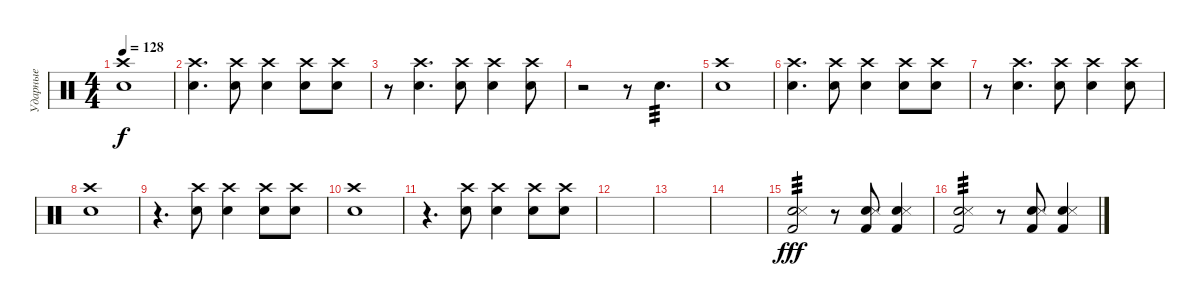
\track ("Ударные" "Ударные") {instrument percussion}
\staff {score}
\articulation defaults
\ts (4 4)
\tempo 128
\clef neutral
\ks c
("Crash high (hit)" "Electric Snare (hit)").1{dy f} |
("Crash high (hit)" "Electric Snare (hit)").4{d} ("Crash high (hit)" "Electric Snare (hit)").8 ("Crash high (hit)" "Electric Snare (hit)").4 ("Crash high (hit)" "Electric Snare (hit)").8 ("Crash high (hit)" "Electric Snare (hit)").8 |
r.8 ("Crash high (hit)" "Electric Snare (hit)").4{d} ("Crash high (hit)" "Electric Snare (hit)").8 ("Crash high (hit)" "Electric Snare (hit)").4 ("Crash high (hit)" "Electric Snare (hit)").8 |
r.2 r.8 "Electric Snare (hit)".4{d tp 3} |
("Crash high (hit)" "Electric Snare (hit)").1 |
("Crash high (hit)" "Electric Snare (hit)").4{d} ("Crash high (hit)" "Electric Snare (hit)").8 ("Crash high (hit)" "Electric Snare (hit)").4 ("Crash high (hit)" "Electric Snare (hit)").8 ("Crash high (hit)" "Electric Snare (hit)").8 |
r.8 ("Crash high (hit)" "Electric Snare (hit)").4{d} ("Crash high (hit)" "Electric Snare (hit)").8 ("Crash high (hit)" "Electric Snare (hit)").4 ("Crash high (hit)" "Electric Snare (hit)").8 |
("Crash high (hit)" "Electric Snare (hit)").1 |
r.4{d} ("Crash high (hit)" "Electric Snare (hit)").8 ("Crash high (hit)" "Electric Snare (hit)").4 ("Crash high (hit)" "Electric Snare (hit)").8 ("Crash high (hit)" "Electric Snare (hit)").8 |
("Crash high (hit)" "Electric Snare (hit)").1 |
r.4{d} ("Crash high (hit)" "Electric Snare (hit)").8 ("Crash high (hit)" "Electric Snare (hit)").4 ("Crash high (hit)" "Electric Snare (hit)").8 ("Crash high (hit)" "Electric Snare (hit)").8 |
|
|
|
("Electric Snare (hit)" "Snare (side stick) 3" "Kick (hit) 2").2{tp 3 dy fff} r.8 ("Electric Snare (hit)" "Snare (side stick) 3" "Kick (hit) 2").8 ("Electric Snare (hit)" "Snare (side stick) 3" "Kick (hit) 2").4 |
("Electric Snare (hit)" "Snare (side stick) 3" "Kick (hit) 2").2{tp 3} r.8 ("Electric Snare (hit)" "Snare (side stick) 3" "Kick (hit) 2").8 ("Electric Snare (hit)" "Snare (side stick) 3" "Kick (hit) 2").4
